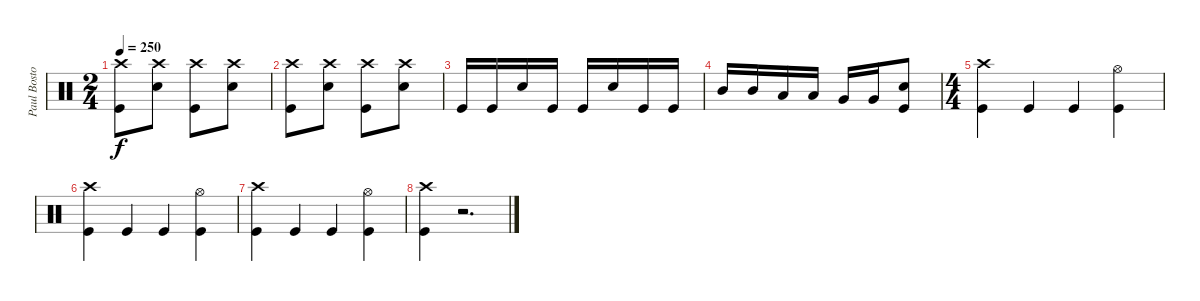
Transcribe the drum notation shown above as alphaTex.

\track ("Paul Bostoph" "Paul Bosto") {instrument percussion}
\staff {score}
\articulation defaults
\ts (2 4)
\tempo 250
\clef neutral
\ks c
("Crash high (hit)" "Kick (hit)").8{dy f} ("Crash high (hit)" "Snare (hit) 2").8 ("Crash high (hit)" "Kick (hit)").8 ("Crash high (hit)" "Snare (hit) 2").8 |
("Crash high (hit)" "Kick (hit)").8 ("Crash high (hit)" "Snare (hit) 2").8 ("Crash high (hit)" "Kick (hit)").8 ("Crash high (hit)" "Snare (hit) 2").8 |
"Kick (hit)".16 "Kick (hit)".16 "Snare (hit) 2".16 "Kick (hit)".16 "Kick (hit)".16 "Snare (hit) 2".16 "Kick (hit)".16 "Kick (hit)".16 |
"Mid Tom (hit)".16 "Mid Tom (hit)".16 "Low Tom (hit)".16 "Low Tom (hit)".16 "Very Low Tom (hit)".16 "Very Low Tom (hit)".16 ("Snare (hit) 2" "Kick (hit)").8 |
\ts (4 4)
("Crash high (hit)" "Kick (hit)").4 "Kick (hit)".4 "Kick (hit)".4 ("Hi-Hat (open)" "Kick (hit)").4 |
("Crash high (hit)" "Kick (hit)").4 "Kick (hit)".4 "Kick (hit)".4 ("Hi-Hat (open)" "Kick (hit)").4 |
("Crash high (hit)" "Kick (hit)").4 "Kick (hit)".4 "Kick (hit)".4 ("Hi-Hat (open)" "Kick (hit)").4 |
("Crash high (hit)" "Kick (hit)").4 r.2{d}
